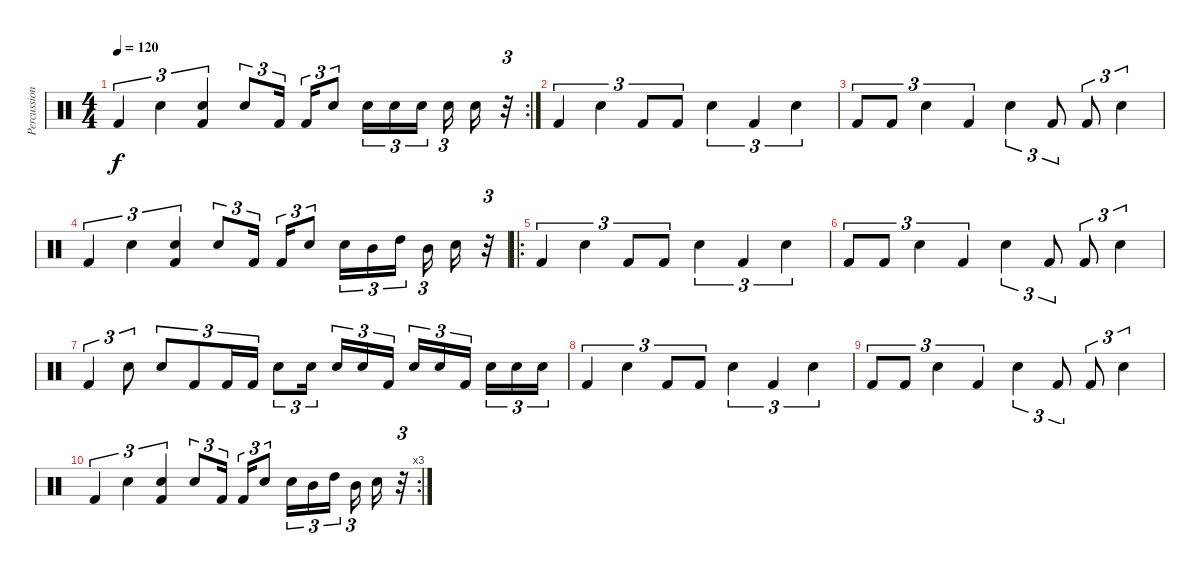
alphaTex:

\track ("Percussion" "Percussion") {instrument percussion}
\staff {score}
\articulation defaults
\rc 2
\ts (4 4)
\tempo 120
\clef neutral
\ks c "Kick (hit) 2".4{tu (3 2) dy f} "Electric Snare (hit)".4{tu (3 2)}
("Electric Snare (hit)" "Kick (hit) 2").4{tu (3 2)} "Electric Snare (hit)".8{tu (3 2)} "Kick (hit) 2".16{tu (3 2)} "Kick (hit) 2".16{tu (3 2)} "Electric Snare (hit)".8{tu (3 2)} "Electric Snare (hit)".16{tu (3 2)} "Electric Snare (hit)".16{tu (3 2)} "Electric Snare (hit)".16{tu (3 2)} "Electric Snare (hit)".16{tu (3 2)} "Electric Snare (hit)".16 r.32{tu (3 2)} |
"Kick (hit) 2".4{tu (3 2)} "Electric Snare (hit)".4{tu (3 2)} "Kick (hit) 2".8{tu (3 2)} "Kick (hit) 2".8{tu (3 2)} "Electric Snare (hit)".4{tu (3 2)} "Kick (hit) 2".4{tu (3 2)} "Electric Snare (hit)".4{tu (3 2)} |
"Kick (hit) 2".8{tu (3 2)} "Kick (hit) 2".8{tu (3 2)} "Electric Snare (hit)".4{tu (3 2)} "Kick (hit) 2".4{tu (3 2)} "Electric Snare (hit)".4{tu (3 2)} "Kick (hit) 2".8{tu (3 2)} "Kick (hit) 2".8{tu (3 2)} "Electric Snare (hit)".4{tu (3 2)} |
"Kick (hit) 2".4{tu (3 2)} "Electric Snare (hit)".4{tu (3 2)} ("Electric Snare (hit)" "Kick (hit) 2").4{tu (3 2)} "Electric Snare (hit)".8{tu (3 2)} "Kick (hit) 2".16{tu (3 2)} "Kick (hit) 2".16{tu (3 2)} "Electric Snare (hit)".8{tu (3 2)} "Electric Snare (hit)".16{tu (3 2)} "Mid Tom (hit)".16{tu (3 2)} "High Tom (hit)".16{tu (3 2)} "Mid Tom (hit)".16{tu (3 2)} "Electric Snare (hit)".16 r.32{tu (3 2)} |
\ro "Kick (hit) 2".4{tu (3 2)} "Electric Snare (hit)".4{tu (3 2)} "Kick (hit) 2".8{tu (3 2)} "Kick (hit) 2".8{tu (3 2)} "Electric Snare (hit)".4{tu (3 2)} "Kick (hit) 2".4{tu (3 2)} "Electric Snare (hit)".4{tu (3 2)}
|
"Kick (hit) 2".8{tu (3 2)} "Kick (hit) 2".8{tu (3 2)} "Electric Snare (hit)".4{tu (3 2)} "Kick (hit) 2".4{tu (3 2)} "Electric Snare (hit)".4{tu (3 2)} "Kick (hit) 2".8{tu (3 2)} "Kick (hit) 2".8{tu (3 2)} "Electric Snare (hit)".4{tu (3 2)} |
"Kick (hit) 2".4{tu (3 2)} "Electric Snare (hit)".8{tu (3 2)} "Electric Snare (hit)".8{tu (3 2)} "Kick (hit) 2".8{tu (3 2)} "Kick (hit) 2".16{tu (3 2)} "Kick (hit) 2".16{tu (3 2)} "Electric Snare (hit)".8{tu (3 2)} "Electric Snare (hit)".16{tu (3 2)} "Electric Snare (hit)".16{tu (3 2)} "Electric Snare (hit)".16{tu (3 2)} "Kick (hit) 2".16{tu (3 2)} "Electric Snare (hit)".16{tu (3 2)} "Electric Snare (hit)".16{tu (3 2)} "Kick (hit) 2".16{tu (3 2)} "Electric Snare (hit)".16{tu (3 2)} "Electric Snare (hit)".16{tu (3 2)} "Electric Snare (hit)".16{tu (3 2)} |
"Kick (hit) 2".4{tu (3 2)} "Electric Snare (hit)".4{tu (3 2)} "Kick (hit) 2".8{tu (3 2)} "Kick (hit) 2".8{tu (3 2)} "Electric Snare (hit)".4{tu (3 2)} "Kick (hit) 2".4{tu (3 2)} "Electric Snare (hit)".4{tu (3 2)} |
"Kick (hit) 2".8{tu (3 2)} "Kick (hit) 2".8{tu (3 2)} "Electric Snare (hit)".4{tu (3 2)} "Kick (hit) 2".4{tu (3 2)} "Electric Snare (hit)".4{tu (3 2)} "Kick (hit) 2".8{tu (3 2)} "Kick (hit) 2".8{tu (3 2)} "Electric Snare (hit)".4{tu (3 2)} |
\rc 3 "Kick (hit) 2".4{tu (3 2)} "Electric Snare (hit)".4{tu (3 2)}
("Electric Snare (hit)" "Kick (hit) 2").4{tu (3 2)} "Electric Snare (hit)".8{tu (3 2)} "Kick (hit) 2".16{tu (3 2)} "Kick (hit) 2".16{tu (3 2)} "Electric Snare (hit)".8{tu (3 2)} "Electric Snare (hit)".16{tu (3 2)} "Mid Tom (hit)".16{tu (3 2)} "High Tom (hit)".16{tu (3 2)} "Mid Tom (hit)".16{tu (3 2)} "Electric Snare (hit)".16 r.32{tu (3 2)}
